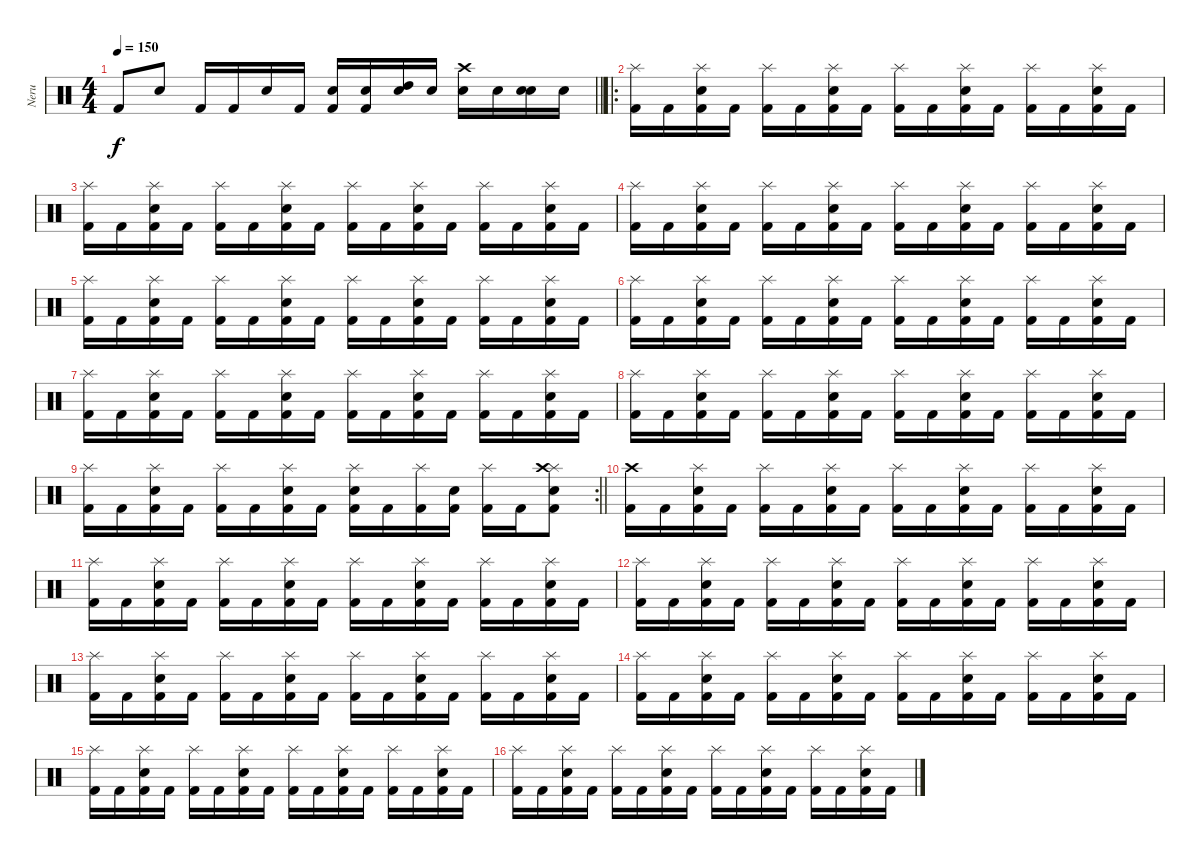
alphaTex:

\track ("Neru" "Neru") {instrument percussion}
\staff {score}
\articulation defaults
\ts (4 4)
\tempo 150
\clef neutral
\barLineRight lightlight
\ks c "Kick (hit) 2".8{dy f} "Electric Snare (hit)".8 "Kick (hit) 2".16 "Kick (hit) 2".16 "Electric Snare (hit)".16 "Kick (hit) 2".16
("Snare (hit) 2" "Kick (hit) 2").16 ("Snare (hit) 2" "Kick (hit) 2").16 ("High Tom (hit)" "Electric Snare (hit)").16 "Snare (hit) 2".16 ("Snare (hit) 2" "Crash high (hit)").16 "Snare (hit) 2".16 ("Snare (hit) 2" "Electric Snare (hit)").16 "Snare (hit) 2".16 |
\ro
("Kick (hit) 2" "Splash (hit)").16 "Kick (hit) 2".16 ("Kick (hit) 2" "Electric Snare (hit)" "Splash (hit)").16 "Kick (hit) 2".16 ("Kick (hit) 2" "Splash (hit)").16 "Kick (hit) 2".16 ("Kick (hit) 2" "Electric Snare (hit)" "Splash (hit)").16 "Kick (hit) 2".16 ("Kick (hit) 2" "Splash (hit)").16 "Kick (hit) 2".16 ("Kick (hit) 2" "Electric Snare (hit)" "Splash (hit)").16 "Kick (hit) 2".16 ("Kick (hit) 2" "Splash (hit)").16 "Kick (hit) 2".16 ("Kick (hit) 2" "Electric Snare (hit)" "Splash (hit)").16 "Kick (hit) 2".16 |
("Kick (hit) 2" "Splash (hit)").16 "Kick (hit) 2".16 ("Kick (hit) 2" "Electric Snare (hit)" "Splash (hit)").16 "Kick (hit) 2".16 ("Kick (hit) 2" "Splash (hit)").16 "Kick (hit) 2".16 ("Kick (hit) 2" "Electric Snare (hit)" "Splash (hit)").16 "Kick (hit) 2".16 ("Kick (hit) 2" "Splash (hit)").16 "Kick (hit) 2".16 ("Kick (hit) 2" "Electric Snare (hit)" "Splash (hit)").16 "Kick (hit) 2".16 ("Kick (hit) 2" "Splash (hit)").16 "Kick (hit) 2".16 ("Kick (hit) 2" "Electric Snare (hit)" "Splash (hit)").16 "Kick (hit) 2".16 |
("Kick (hit) 2" "Splash (hit)").16 "Kick (hit) 2".16 ("Kick (hit) 2" "Electric Snare (hit)" "Splash (hit)").16 "Kick (hit) 2".16 ("Kick (hit) 2" "Splash (hit)").16 "Kick (hit) 2".16 ("Kick (hit) 2" "Electric Snare (hit)" "Splash (hit)").16 "Kick (hit) 2".16 ("Kick (hit) 2" "Splash (hit)").16 "Kick (hit) 2".16 ("Kick (hit) 2" "Electric Snare (hit)" "Splash (hit)").16 "Kick (hit) 2".16 ("Kick (hit) 2" "Splash (hit)").16 "Kick (hit) 2".16 ("Kick (hit) 2" "Electric Snare (hit)" "Splash (hit)").16 "Kick (hit) 2".16 |
("Kick (hit) 2" "Splash (hit)").16 "Kick (hit) 2".16 ("Kick (hit) 2" "Electric Snare (hit)" "Splash (hit)").16 "Kick (hit) 2".16 ("Kick (hit) 2" "Splash (hit)").16 "Kick (hit) 2".16 ("Kick (hit) 2" "Electric Snare (hit)" "Splash (hit)").16 "Kick (hit) 2".16 ("Kick (hit) 2" "Splash (hit)").16 "Kick (hit) 2".16 ("Kick (hit) 2" "Electric Snare (hit)" "Splash (hit)").16 "Kick (hit) 2".16 ("Kick (hit) 2" "Splash (hit)").16 "Kick (hit) 2".16 ("Kick (hit) 2" "Electric Snare (hit)" "Splash (hit)").16 "Kick (hit) 2".16 |
("Kick (hit) 2" "Splash (hit)").16 "Kick (hit) 2".16 ("Kick (hit) 2" "Electric Snare (hit)" "Splash (hit)").16 "Kick (hit) 2".16 ("Kick (hit) 2" "Splash (hit)").16 "Kick (hit) 2".16 ("Kick (hit) 2" "Electric Snare (hit)" "Splash (hit)").16 "Kick (hit) 2".16 ("Kick (hit) 2" "Splash (hit)").16 "Kick (hit) 2".16 ("Kick (hit) 2" "Electric Snare (hit)" "Splash (hit)").16 "Kick (hit) 2".16 ("Kick (hit) 2" "Splash (hit)").16 "Kick (hit) 2".16 ("Kick (hit) 2" "Electric Snare (hit)" "Splash (hit)").16 "Kick (hit) 2".16 |
("Kick (hit) 2" "Splash (hit)").16 "Kick (hit) 2".16 ("Kick (hit) 2" "Electric Snare (hit)" "Splash (hit)").16 "Kick (hit) 2".16 ("Kick (hit) 2" "Splash (hit)").16 "Kick (hit) 2".16 ("Kick (hit) 2" "Electric Snare (hit)" "Splash (hit)").16 "Kick (hit) 2".16 ("Kick (hit) 2" "Splash (hit)").16 "Kick (hit) 2".16 ("Kick (hit) 2" "Electric Snare (hit)" "Splash (hit)").16 "Kick (hit) 2".16 ("Kick (hit) 2" "Splash (hit)").16 "Kick (hit) 2".16 ("Kick (hit) 2" "Electric Snare (hit)" "Splash (hit)").16 "Kick (hit) 2".16 |
("Kick (hit) 2" "Splash (hit)").16 "Kick (hit) 2".16 ("Kick (hit) 2" "Electric Snare (hit)" "Splash (hit)").16 "Kick (hit) 2".16 ("Kick (hit) 2" "Splash (hit)").16 "Kick (hit) 2".16 ("Kick (hit) 2" "Electric Snare (hit)" "Splash (hit)").16 "Kick (hit) 2".16 ("Kick (hit) 2" "Splash (hit)").16 "Kick (hit) 2".16 ("Kick (hit) 2" "Electric Snare (hit)" "Splash (hit)").16 "Kick (hit) 2".16 ("Kick (hit) 2" "Splash (hit)").16 "Kick (hit) 2".16 ("Kick (hit) 2" "Electric Snare (hit)" "Splash (hit)").16 "Kick (hit) 2".16 |
\rc 2
\barLineRight lightlight
("Kick (hit) 2" "Splash (hit)").16 "Kick (hit) 2".16 ("Kick (hit) 2" "Electric Snare (hit)" "Splash (hit)").16 "Kick (hit) 2".16 ("Kick (hit) 2" "Splash (hit)").16 "Kick (hit) 2".16 ("Kick (hit) 2" "Electric Snare (hit)" "Splash (hit)").16 "Kick (hit) 2".16 ("Kick (hit) 2" "Electric Snare (hit)" "Splash (hit)").16 "Kick (hit) 2".16 ("Kick (hit) 2" "Splash (hit)").16 ("Kick (hit) 2" "Electric Snare (hit)").16 ("Kick (hit) 2" "Splash (hit)").16 "Kick (hit) 2".16 ("Kick (hit) 2" "Electric Snare (hit)" "Splash (hit)" "Crash high (hit)").8 |
("Kick (hit) 2" "Crash high (hit)").16 "Kick (hit) 2".16 ("Kick (hit) 2" "Electric Snare (hit)" "Splash (hit)").16 "Kick (hit) 2".16 ("Kick (hit) 2" "Splash (hit)").16 "Kick (hit) 2".16 ("Kick (hit) 2" "Electric Snare (hit)" "Splash (hit)").16 "Kick (hit) 2".16 ("Kick (hit) 2" "Splash (hit)").16 "Kick (hit) 2".16 ("Kick (hit) 2" "Electric Snare (hit)" "Splash (hit)").16 "Kick (hit) 2".16 ("Kick (hit) 2" "Splash (hit)").16 "Kick (hit) 2".16 ("Kick (hit) 2" "Electric Snare (hit)" "Splash (hit)").16 "Kick (hit) 2".16 |
("Kick (hit) 2" "Splash (hit)").16 "Kick (hit) 2".16 ("Kick (hit) 2" "Electric Snare (hit)" "Splash (hit)").16 "Kick (hit) 2".16 ("Kick (hit) 2" "Splash (hit)").16 "Kick (hit) 2".16 ("Kick (hit) 2" "Electric Snare (hit)" "Splash (hit)").16 "Kick (hit) 2".16 ("Kick (hit) 2" "Splash (hit)").16 "Kick (hit) 2".16 ("Kick (hit) 2" "Electric Snare (hit)" "Splash (hit)").16 "Kick (hit) 2".16 ("Kick (hit) 2" "Splash (hit)").16 "Kick (hit) 2".16 ("Kick (hit) 2" "Electric Snare (hit)" "Splash (hit)").16 "Kick (hit) 2".16 |
("Kick (hit) 2" "Splash (hit)").16 "Kick (hit) 2".16 ("Kick (hit) 2" "Electric Snare (hit)" "Splash (hit)").16 "Kick (hit) 2".16 ("Kick (hit) 2" "Splash (hit)").16 "Kick (hit) 2".16 ("Kick (hit) 2" "Electric Snare (hit)" "Splash (hit)").16 "Kick (hit) 2".16 ("Kick (hit) 2" "Splash (hit)").16 "Kick (hit) 2".16 ("Kick (hit) 2" "Electric Snare (hit)" "Splash (hit)").16 "Kick (hit) 2".16 ("Kick (hit) 2" "Splash (hit)").16 "Kick (hit) 2".16 ("Kick (hit) 2" "Electric Snare (hit)" "Splash (hit)").16 "Kick (hit) 2".16 |
("Kick (hit) 2" "Splash (hit)").16 "Kick (hit) 2".16 ("Kick (hit) 2" "Electric Snare (hit)" "Splash (hit)").16 "Kick (hit) 2".16 ("Kick (hit) 2" "Splash (hit)").16 "Kick (hit) 2".16 ("Kick (hit) 2" "Electric Snare (hit)" "Splash (hit)").16 "Kick (hit) 2".16 ("Kick (hit) 2" "Splash (hit)").16 "Kick (hit) 2".16 ("Kick (hit) 2" "Electric Snare (hit)" "Splash (hit)").16 "Kick (hit) 2".16 ("Kick (hit) 2" "Splash (hit)").16 "Kick (hit) 2".16 ("Kick (hit) 2" "Electric Snare (hit)" "Splash (hit)").16 "Kick (hit) 2".16 |
("Kick (hit) 2" "Splash (hit)").16 "Kick (hit) 2".16 ("Kick (hit) 2" "Electric Snare (hit)" "Splash (hit)").16 "Kick (hit) 2".16 ("Kick (hit) 2" "Splash (hit)").16 "Kick (hit) 2".16 ("Kick (hit) 2" "Electric Snare (hit)" "Splash (hit)").16 "Kick (hit) 2".16 ("Kick (hit) 2" "Splash (hit)").16 "Kick (hit) 2".16 ("Kick (hit) 2" "Electric Snare (hit)" "Splash (hit)").16 "Kick (hit) 2".16 ("Kick (hit) 2" "Splash (hit)").16 "Kick (hit) 2".16 ("Kick (hit) 2" "Electric Snare (hit)" "Splash (hit)").16 "Kick (hit) 2".16 |
("Kick (hit) 2" "Splash (hit)").16 "Kick (hit) 2".16 ("Kick (hit) 2" "Electric Snare (hit)" "Splash (hit)").16 "Kick (hit) 2".16 ("Kick (hit) 2" "Splash (hit)").16 "Kick (hit) 2".16 ("Kick (hit) 2" "Electric Snare (hit)" "Splash (hit)").16 "Kick (hit) 2".16 ("Kick (hit) 2" "Splash (hit)").16 "Kick (hit) 2".16 ("Kick (hit) 2" "Electric Snare (hit)" "Splash (hit)").16 "Kick (hit) 2".16 ("Kick (hit) 2" "Splash (hit)").16 "Kick (hit) 2".16 ("Kick (hit) 2" "Electric Snare (hit)" "Splash (hit)").16 "Kick (hit) 2".16 |
("Kick (hit) 2" "Splash (hit)").16 "Kick (hit) 2".16 ("Kick (hit) 2" "Electric Snare (hit)" "Splash (hit)").16 "Kick (hit) 2".16 ("Kick (hit) 2" "Splash (hit)").16 "Kick (hit) 2".16 ("Kick (hit) 2" "Electric Snare (hit)" "Splash (hit)").16 "Kick (hit) 2".16 ("Kick (hit) 2" "Splash (hit)").16 "Kick (hit) 2".16 ("Kick (hit) 2" "Electric Snare (hit)" "Splash (hit)").16 "Kick (hit) 2".16 ("Kick (hit) 2" "Splash (hit)").16 "Kick (hit) 2".16 ("Kick (hit) 2" "Electric Snare (hit)" "Splash (hit)").16 "Kick (hit) 2".16
